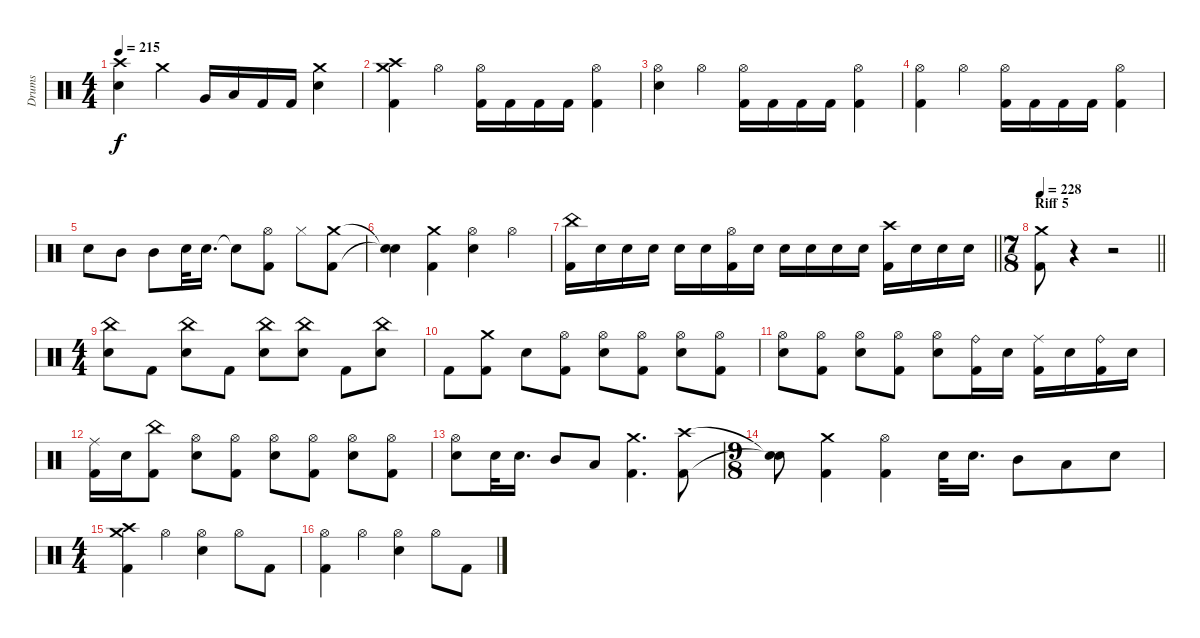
\track ("Drums" "Drums") {instrument percussion}
\staff {score}
\articulation defaults
\ts (4 4)
\tempo 215
\clef neutral
\ks c
("Crash high (hit)" "Electric Snare (hit)").4{dy f} "Crash medium (hit)".4 "Very Low Tom (hit)".16 "Low Tom (hit)".16 "Kick (hit) 2".16 "Kick (hit) 2".16 ("Crash medium (hit)" "Electric Snare (hit)").4 |
("Crash medium (hit)" "Crash high (hit)" "Kick (hit) 2").4 "Hi-Hat (open)".4 ("Hi-Hat (open)" "Kick (hit) 2").16 "Kick (hit) 2".16 "Kick (hit) 2".16 "Kick (hit) 2".16 ("Hi-Hat (open)" "Kick (hit) 2").4 |
("Hi-Hat (open)" "Electric Snare (hit)").4 "Hi-Hat (open)".4 ("Hi-Hat (open)" "Kick (hit) 2").16 "Kick (hit) 2".16 "Kick (hit) 2".16 "Kick (hit) 2".16 ("Hi-Hat (open)" "Kick (hit) 2").4 |
("Hi-Hat (open)" "Kick (hit) 2").4 "Hi-Hat (open)".4 ("Hi-Hat (open)" "Kick (hit) 2").16 "Kick (hit) 2".16 "Kick (hit) 2".16 "Kick (hit) 2".16 ("Hi-Hat (open)" "Kick (hit) 2").4 |
"Electric Snare (hit)".8 "Mid Tom (hit)".8 "Mid Tom (hit)".8 "Electric Snare (hit)".32 "Electric Snare (hit)".16{d} "Snare (hit)"{t}.8 ("Hi-Hat (open)" "Kick (hit) 2").8 "Hi-Hat (closed)".8 ("Crash medium (hit)" "Kick (hit) 2").8 |
("Snare (hit)"{t} "Snare (hit)"{t}).4 ("Crash medium (hit)" "Kick (hit) 2").4 ("Hi-Hat (open)" "Electric Snare (hit)").4 "Hi-Hat (open)".4 |
\barLineRight lightlight
("China (hit)" "Kick (hit) 2").16 "Electric Snare (hit)".16 "Electric Snare (hit)".16 "Electric Snare (hit)".16 "Electric Snare (hit)".16 "Electric Snare (hit)".16 ("Hi-Hat (open)" "Kick (hit) 2").16 "Electric Snare (hit)".16 "Electric Snare (hit)".16 "Electric Snare (hit)".16 "Electric Snare (hit)".16 "Electric Snare (hit)".16 ("Crash high (hit)" "Kick (hit) 2").16 "Electric Snare (hit)".16 "Electric Snare (hit)".16 "Electric Snare (hit)".16 |
\ts (7 8)
\section ("" "Riff 5")
\tempo 228
\barLineRight lightlight
("Crash medium (hit)" "Kick (hit) 2").8 r.4{volume 0} r.2 |
\ts (4 4)
("China (hit)" "Electric Snare (hit)").8{volume 13} "Kick (hit) 2".8 ("China (hit)" "Electric Snare (hit)").8 "Kick (hit) 2".8 ("China (hit)" "Electric Snare (hit)").8 ("China (hit)" "Electric Snare (hit)").8 "Kick (hit) 2".8 ("China (hit)" "Electric Snare (hit)").8 |
"Kick (hit) 2".8 ("Crash medium (hit)" "Kick (hit) 2").8 "Electric Snare (hit)".8 ("Hi-Hat (open)" "Kick (hit) 2").8 ("Hi-Hat (open)" "Electric Snare (hit)").8 ("Hi-Hat (open)" "Kick (hit) 2").8 ("Hi-Hat (open)" "Electric Snare (hit)").8 ("Hi-Hat (open)" "Kick (hit) 2").8 |
("Hi-Hat (open)" "Electric Snare (hit)").8 ("Hi-Hat (open)" "Kick (hit) 2").8 ("Hi-Hat (open)" "Electric Snare (hit)").8 ("Hi-Hat (open)" "Kick (hit) 2").8 ("Hi-Hat (open)" "Electric Snare (hit)").8 ("Ride (bell)" "Kick (hit) 2").16 "Electric Snare (hit)".16 ("Ride (middle)" "Kick (hit) 2").16 "Electric Snare (hit)".16 ("Ride (bell)" "Kick (hit) 2").16 "Electric Snare (hit)".16 |
("Ride (middle)" "Kick (hit) 2").16 "Electric Snare (hit)".16 ("China (hit)" "Kick (hit) 2").8 ("Hi-Hat (open)" "Electric Snare (hit)").8 ("Hi-Hat (open)" "Kick (hit) 2").8 ("Hi-Hat (open)" "Electric Snare (hit)").8 ("Hi-Hat (open)" "Kick (hit) 2").8 ("Hi-Hat (open)" "Electric Snare (hit)").8 ("Hi-Hat (open)" "Kick (hit) 2").8 |
("Hi-Hat (open)" "Electric Snare (hit)").8 "Electric Snare (hit)".32 "Electric Snare (hit)".16{d} "Mid Tom (hit)".8 "Low Tom (hit)".8 ("Crash medium (hit)" "Kick (hit) 2").4{d} ("Crash high (hit)" "Kick (hit) 2").8 |
\ts (9 8)
("Snare (hit)"{t} "Snare (hit)"{t}).8 ("Crash medium (hit)" "Kick (hit) 2").4 ("Hi-Hat (open)" "Kick (hit) 2").4 "Electric Snare (hit)".32 "Electric Snare (hit)".16{d} "Mid Tom (hit)".8 "Low Tom (hit)".8 "Electric Snare (hit)".8 |
\ts (4 4)
("Crash medium (hit)" "Crash high (hit)" "Kick (hit) 2").4 "Hi-Hat (open)".4 ("Hi-Hat (open)" "Electric Snare (hit)").4 "Hi-Hat (open)".8 "Kick (hit) 2".8 |
("Hi-Hat (open)" "Kick (hit) 2").4 "Hi-Hat (open)".4 ("Hi-Hat (open)" "Electric Snare (hit)").4 "Hi-Hat (open)".8 "Kick (hit) 2".8
